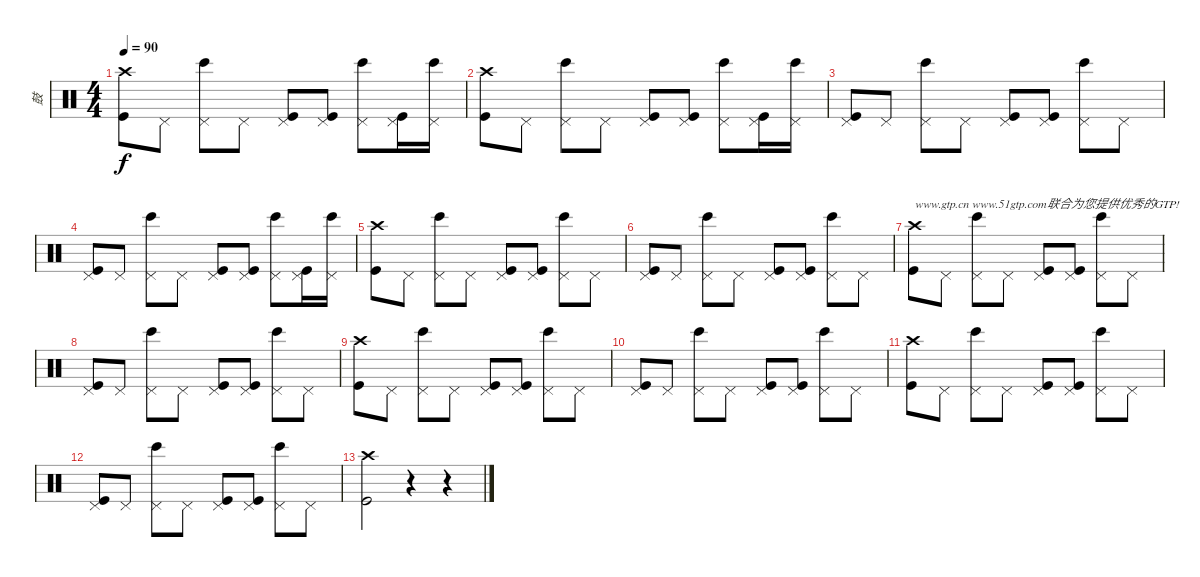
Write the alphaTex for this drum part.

\track ("鼓" "鼓") {instrument percussion}
\staff {score}
\articulation defaults
\ts (4 4)
\tempo 90
\clef neutral
\ks c
("Crash high (hit)" "Kick (hit)").8{dy f} "Pedal Hi-Hat (hit)".8 ("Pedal Hi-Hat (hit)" "Bongo High (hit)").8 "Pedal Hi-Hat (hit)".8 ("Pedal Hi-Hat (hit)" "Kick (hit)").8 ("Pedal Hi-Hat (hit)" "Kick (hit)").8 ("Pedal Hi-Hat (hit)" "Bongo High (hit)").8 ("Pedal Hi-Hat (hit)" "Kick (hit)").16 ("Pedal Hi-Hat (hit)" "Bongo High (hit)").16 |
("Crash high (hit)" "Kick (hit)").8 "Pedal Hi-Hat (hit)".8 ("Pedal Hi-Hat (hit)" "Bongo High (hit)").8 "Pedal Hi-Hat (hit)".8 ("Pedal Hi-Hat (hit)" "Kick (hit)").8 ("Pedal Hi-Hat (hit)" "Kick (hit)").8 ("Pedal Hi-Hat (hit)" "Bongo High (hit)").8 ("Pedal Hi-Hat (hit)" "Kick (hit)").16 ("Pedal Hi-Hat (hit)" "Bongo High (hit)").16 |
("Pedal Hi-Hat (hit)" "Kick (hit)").8 "Pedal Hi-Hat (hit)".8 ("Pedal Hi-Hat (hit)" "Bongo High (hit)").8 "Pedal Hi-Hat (hit)".8 ("Pedal Hi-Hat (hit)" "Kick (hit)").8 ("Pedal Hi-Hat (hit)" "Kick (hit)").8 ("Pedal Hi-Hat (hit)" "Bongo High (hit)").8 "Pedal Hi-Hat (hit)".8 |
("Pedal Hi-Hat (hit)" "Kick (hit)").8 "Pedal Hi-Hat (hit)".8 ("Pedal Hi-Hat (hit)" "Bongo High (hit)").8 "Pedal Hi-Hat (hit)".8 ("Pedal Hi-Hat (hit)" "Kick (hit)").8 ("Pedal Hi-Hat (hit)" "Kick (hit)").8 ("Pedal Hi-Hat (hit)" "Bongo High (hit)").8 ("Pedal Hi-Hat (hit)" "Kick (hit)").16 ("Pedal Hi-Hat (hit)" "Bongo High (hit)").16 |
("Crash high (hit)" "Kick (hit)").8 "Pedal Hi-Hat (hit)".8 ("Pedal Hi-Hat (hit)" "Bongo High (hit)").8 "Pedal Hi-Hat (hit)".8 ("Pedal Hi-Hat (hit)" "Kick (hit)").8 ("Pedal Hi-Hat (hit)" "Kick (hit)").8 ("Pedal Hi-Hat (hit)" "Bongo High (hit)").8 "Pedal Hi-Hat (hit)".8 |
("Pedal Hi-Hat (hit)" "Kick (hit)").8 "Pedal Hi-Hat (hit)".8 ("Pedal Hi-Hat (hit)" "Bongo High (hit)").8 "Pedal Hi-Hat (hit)".8 ("Pedal Hi-Hat (hit)" "Kick (hit)").8 ("Pedal Hi-Hat (hit)" "Kick (hit)").8 ("Pedal Hi-Hat (hit)" "Bongo High (hit)").8 "Pedal Hi-Hat (hit)".8 |
("Crash high (hit)" "Kick (hit)").8{txt "www.gtp.cn www.51gtp.com联合为您提供优秀的GTP!"} "Pedal Hi-Hat (hit)".8 ("Pedal Hi-Hat (hit)" "Bongo High (hit)").8 "Pedal Hi-Hat (hit)".8 ("Pedal Hi-Hat (hit)" "Kick (hit)").8 ("Pedal Hi-Hat (hit)" "Kick (hit)").8 ("Pedal Hi-Hat (hit)" "Bongo High (hit)").8 "Pedal Hi-Hat (hit)".8 |
("Pedal Hi-Hat (hit)" "Kick (hit)").8 "Pedal Hi-Hat (hit)".8 ("Pedal Hi-Hat (hit)" "Bongo High (hit)").8 "Pedal Hi-Hat (hit)".8 ("Pedal Hi-Hat (hit)" "Kick (hit)").8 ("Pedal Hi-Hat (hit)" "Kick (hit)").8 ("Pedal Hi-Hat (hit)" "Bongo High (hit)").8 "Pedal Hi-Hat (hit)".8 |
("Crash high (hit)" "Kick (hit)").8 "Pedal Hi-Hat (hit)".8 ("Pedal Hi-Hat (hit)" "Bongo High (hit)").8 "Pedal Hi-Hat (hit)".8 ("Pedal Hi-Hat (hit)" "Kick (hit)").8 ("Pedal Hi-Hat (hit)" "Kick (hit)").8 ("Pedal Hi-Hat (hit)" "Bongo High (hit)").8 "Pedal Hi-Hat (hit)".8 |
("Pedal Hi-Hat (hit)" "Kick (hit)").8 "Pedal Hi-Hat (hit)".8 ("Pedal Hi-Hat (hit)" "Bongo High (hit)").8 "Pedal Hi-Hat (hit)".8 ("Pedal Hi-Hat (hit)" "Kick (hit)").8 ("Pedal Hi-Hat (hit)" "Kick (hit)").8 ("Pedal Hi-Hat (hit)" "Bongo High (hit)").8 "Pedal Hi-Hat (hit)".8 |
("Crash high (hit)" "Kick (hit)").8 "Pedal Hi-Hat (hit)".8 ("Pedal Hi-Hat (hit)" "Bongo High (hit)").8 "Pedal Hi-Hat (hit)".8 ("Pedal Hi-Hat (hit)" "Kick (hit)").8 ("Pedal Hi-Hat (hit)" "Kick (hit)").8 ("Pedal Hi-Hat (hit)" "Bongo High (hit)").8 "Pedal Hi-Hat (hit)".8 |
("Pedal Hi-Hat (hit)" "Kick (hit)").8 "Pedal Hi-Hat (hit)".8 ("Pedal Hi-Hat (hit)" "Bongo High (hit)").8 "Pedal Hi-Hat (hit)".8 ("Pedal Hi-Hat (hit)" "Kick (hit)").8 ("Pedal Hi-Hat (hit)" "Kick (hit)").8 ("Pedal Hi-Hat (hit)" "Bongo High (hit)").8 "Pedal Hi-Hat (hit)".8 |
("Crash high (hit)" "Kick (hit)").2 r.4 r.4
